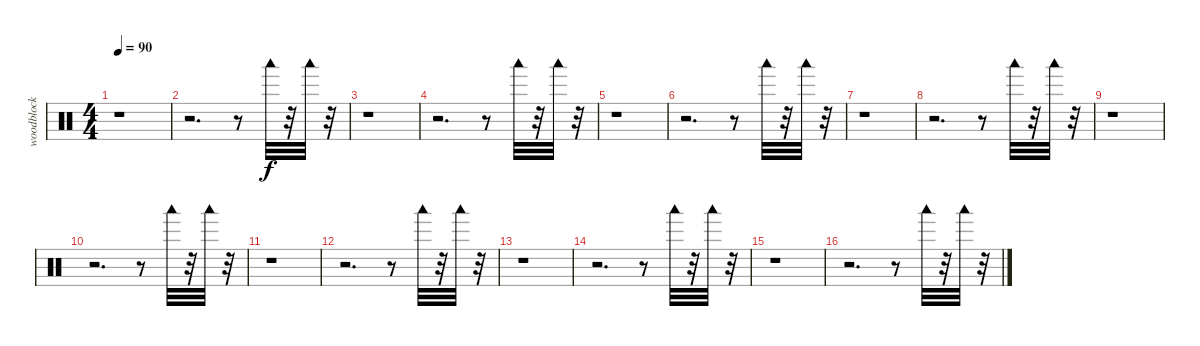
\track ("woodblock" "woodblock") {instrument percussion}
\staff {score}
\articulation defaults
\ts (4 4)
\tempo 90
\clef neutral
\ks c
r.1{dy f} |
r.2{d} r.8 "Woodblock low (hit)".32 r.32 "Woodblock low (hit)".32 r.32 |
r.1 |
r.2{d} r.8 "Woodblock low (hit)".32 r.32 "Woodblock low (hit)".32 r.32 |
r.1 |
r.2{d} r.8 "Woodblock low (hit)".32 r.32 "Woodblock low (hit)".32 r.32 |
r.1 |
r.2{d} r.8 "Woodblock low (hit)".32 r.32 "Woodblock low (hit)".32 r.32 |
r.1 |
r.2{d} r.8 "Woodblock low (hit)".32 r.32 "Woodblock low (hit)".32 r.32 |
r.1 |
r.2{d} r.8 "Woodblock low (hit)".32 r.32 "Woodblock low (hit)".32 r.32 |
r.1 |
r.2{d} r.8 "Woodblock low (hit)".32 r.32 "Woodblock low (hit)".32 r.32 |
r.1 |
r.2{d} r.8 "Woodblock low (hit)".32 r.32 "Woodblock low (hit)".32 r.32
